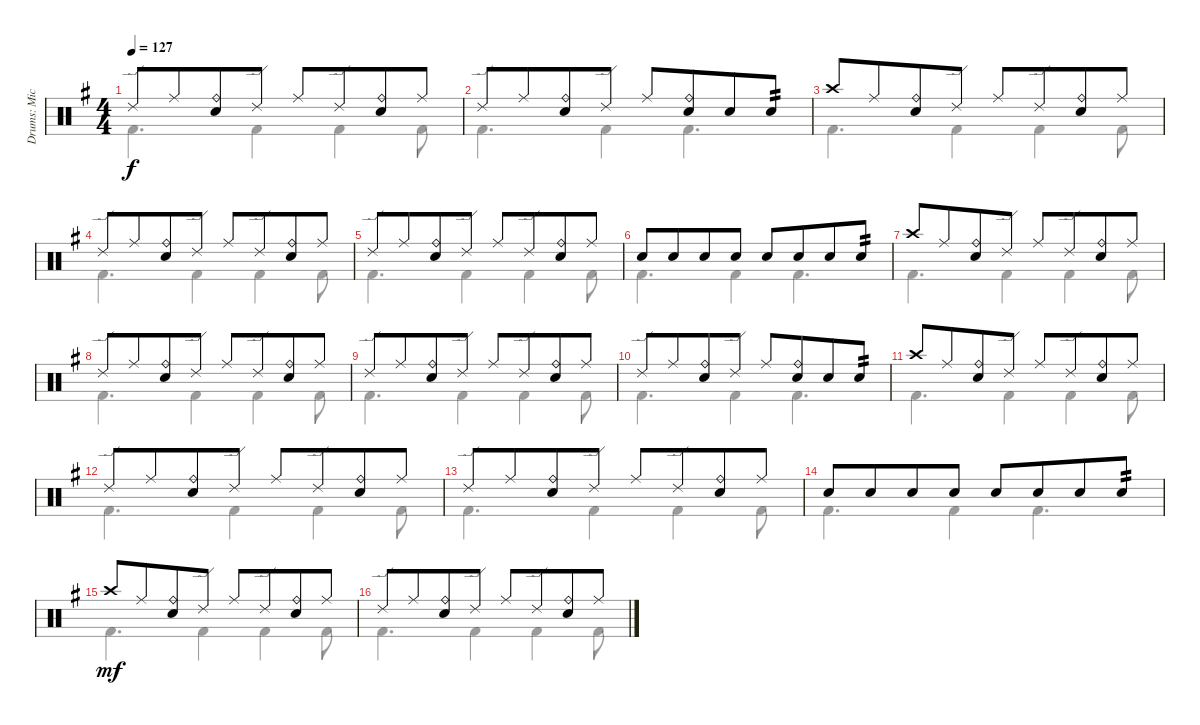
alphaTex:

\track ("Drums: Mick" "Drums: Mic") {instrument percussion}
\staff {score}
\articulation defaults
\voice
\ts (4 4)
\tempo 127
\clef neutral
\ks g "Ride (edge) 2".8{dy f} "Ride (middle)".8{beam merge}
("Ride (bell)" "Electric Snare (hit)").8 "Ride (edge) 2".8 "Ride (middle)".8 "Ride (edge) 2".8{beam merge} ("Ride (bell)" "Electric Snare (hit)").8 "Ride (middle)".8 |
"Ride (edge) 2".8 "Ride (middle)".8{beam merge} ("Ride (bell)" "Electric Snare (hit)").8 "Ride (edge) 2".8 "Ride (middle)".8{beam merge} ("Ride (bell)" "Electric Snare (hit)").8{beam merge} "Electric Snare (hit)".8 "Electric Snare (hit)".8{tp 2} |
"Crash high (hit)".8 "Ride (middle)".8{beam merge} ("Ride (bell)" "Electric Snare (hit)").8 "Ride (edge) 2".8 "Ride (middle)".8 "Ride (edge) 2".8{beam merge} ("Ride (bell)" "Electric Snare (hit)").8 "Ride (middle)".8 |
"Ride (edge) 2".8 "Ride (middle)".8{beam merge} ("Ride (bell)" "Electric Snare (hit)").8 "Ride (edge) 2".8 "Ride (middle)".8 "Ride (edge) 2".8{beam merge} ("Ride (bell)" "Electric Snare (hit)").8 "Ride (middle)".8 |
"Ride (edge) 2".8 "Ride (middle)".8{beam merge} ("Ride (bell)" "Electric Snare (hit)").8 "Ride (edge) 2".8 "Ride (middle)".8 "Ride (edge) 2".8{beam merge} ("Ride (bell)" "Electric Snare (hit)").8 "Ride (middle)".8 |
"Electric Snare (hit)".8 "Electric Snare (hit)".8{beam merge} "Electric Snare (hit)".8 "Electric Snare (hit)".8 "Electric Snare (hit)".8{beam merge} "Electric Snare (hit)".8{beam merge} "Electric Snare (hit)".8 "Electric Snare (hit)".8{tp 2} |
"Crash high (hit)".8 "Ride (middle)".8{beam merge} ("Ride (bell)" "Electric Snare (hit)").8 "Ride (edge) 2".8 "Ride (middle)".8 "Ride (edge) 2".8{beam merge} ("Ride (bell)" "Electric Snare (hit)").8 "Ride (middle)".8 |
"Ride (edge) 2".8 "Ride (middle)".8{beam merge} ("Ride (bell)" "Electric Snare (hit)").8 "Ride (edge) 2".8 "Ride (middle)".8 "Ride (edge) 2".8{beam merge} ("Ride (bell)" "Electric Snare (hit)").8 "Ride (middle)".8 |
"Ride (edge) 2".8 "Ride (middle)".8{beam merge} ("Ride (bell)" "Electric Snare (hit)").8 "Ride (edge) 2".8 "Ride (middle)".8 "Ride (edge) 2".8{beam merge} ("Ride (bell)" "Electric Snare (hit)").8 "Ride (middle)".8 |
"Ride (edge) 2".8 "Ride (middle)".8{beam merge} ("Ride (bell)" "Electric Snare (hit)").8 "Ride (edge) 2".8 "Ride (middle)".8{beam merge} ("Ride (bell)" "Electric Snare (hit)").8{beam merge} "Electric Snare (hit)".8 "Electric Snare (hit)".8{tp 2} |
"Crash high (hit)".8 "Ride (middle)".8{beam merge} ("Ride (bell)" "Electric Snare (hit)").8 "Ride (edge) 2".8 "Ride (middle)".8 "Ride (edge) 2".8{beam merge} ("Ride (bell)" "Electric Snare (hit)").8 "Ride (middle)".8 |
"Ride (edge) 2".8 "Ride (middle)".8{beam merge} ("Ride (bell)" "Electric Snare (hit)").8 "Ride (edge) 2".8 "Ride (middle)".8 "Ride (edge) 2".8{beam merge} ("Ride (bell)" "Electric Snare (hit)").8 "Ride (middle)".8 |
"Ride (edge) 2".8 "Ride (middle)".8{beam merge} ("Ride (bell)" "Electric Snare (hit)").8 "Ride (edge) 2".8 "Ride (middle)".8 "Ride (edge) 2".8{beam merge} ("Ride (bell)" "Electric Snare (hit)").8 "Ride (middle)".8 |
"Electric Snare (hit)".8 "Electric Snare (hit)".8{beam merge} "Electric Snare (hit)".8 "Electric Snare (hit)".8 "Electric Snare (hit)".8{beam merge} "Electric Snare (hit)".8{beam merge} "Electric Snare (hit)".8 "Electric Snare (hit)".8{tp 2} |
"Crash high (hit)".8{dy mf volume 8} "Ride (middle)".8{beam merge} ("Ride (bell)" "Electric Snare (hit)").8 "Ride (edge) 2".8 "Ride (middle)".8 "Ride (edge) 2".8{beam merge} ("Ride (bell)" "Electric Snare (hit)").8 "Ride (middle)".8 |
"Ride (edge) 2".8 "Ride (middle)".8{beam merge} ("Ride (bell)" "Electric Snare (hit)").8 "Ride (edge) 2".8 "Ride (middle)".8 "Ride (edge) 2".8{beam merge} ("Ride (bell)" "Electric Snare (hit)").8 "Ride (middle)".8
\voice
\clef neutral
\ottava regular
\simile none
\ks g "Kick (hit) 2".4{d dy f} "Kick (hit) 2".4 "Kick (hit) 2".4 "Kick (hit) 2".8
|
"Kick (hit) 2".4{d} "Kick (hit) 2".4 "Kick (hit) 2".4{d} |
"Kick (hit) 2".4{d} "Kick (hit) 2".4 "Kick (hit) 2".4 "Kick (hit) 2".8 |
"Kick (hit) 2".4{d} "Kick (hit) 2".4 "Kick (hit) 2".4 "Kick (hit) 2".8 |
"Kick (hit) 2".4{d} "Kick (hit) 2".4 "Kick (hit) 2".4 "Kick (hit) 2".8 |
"Kick (hit) 2".4{d} "Kick (hit) 2".4 "Kick (hit) 2".4{d} |
"Kick (hit) 2".4{d} "Kick (hit) 2".4 "Kick (hit) 2".4 "Kick (hit) 2".8 |
"Kick (hit) 2".4{d} "Kick (hit) 2".4 "Kick (hit) 2".4 "Kick (hit) 2".8 |
"Kick (hit) 2".4{d} "Kick (hit) 2".4 "Kick (hit) 2".4 "Kick (hit) 2".8 |
"Kick (hit) 2".4{d} "Kick (hit) 2".4 "Kick (hit) 2".4{d} |
"Kick (hit) 2".4{d} "Kick (hit) 2".4 "Kick (hit) 2".4 "Kick (hit) 2".8 |
"Kick (hit) 2".4{d} "Kick (hit) 2".4 "Kick (hit) 2".4 "Kick (hit) 2".8 |
"Kick (hit) 2".4{d} "Kick (hit) 2".4 "Kick (hit) 2".4 "Kick (hit) 2".8 |
"Kick (hit) 2".4{d} "Kick (hit) 2".4 "Kick (hit) 2".4{d} |
"Kick (hit) 2".4{d dy mf} "Kick (hit) 2".4 "Kick (hit) 2".4 "Kick (hit) 2".8 |
"Kick (hit) 2".4{d} "Kick (hit) 2".4 "Kick (hit) 2".4 "Kick (hit) 2".8
